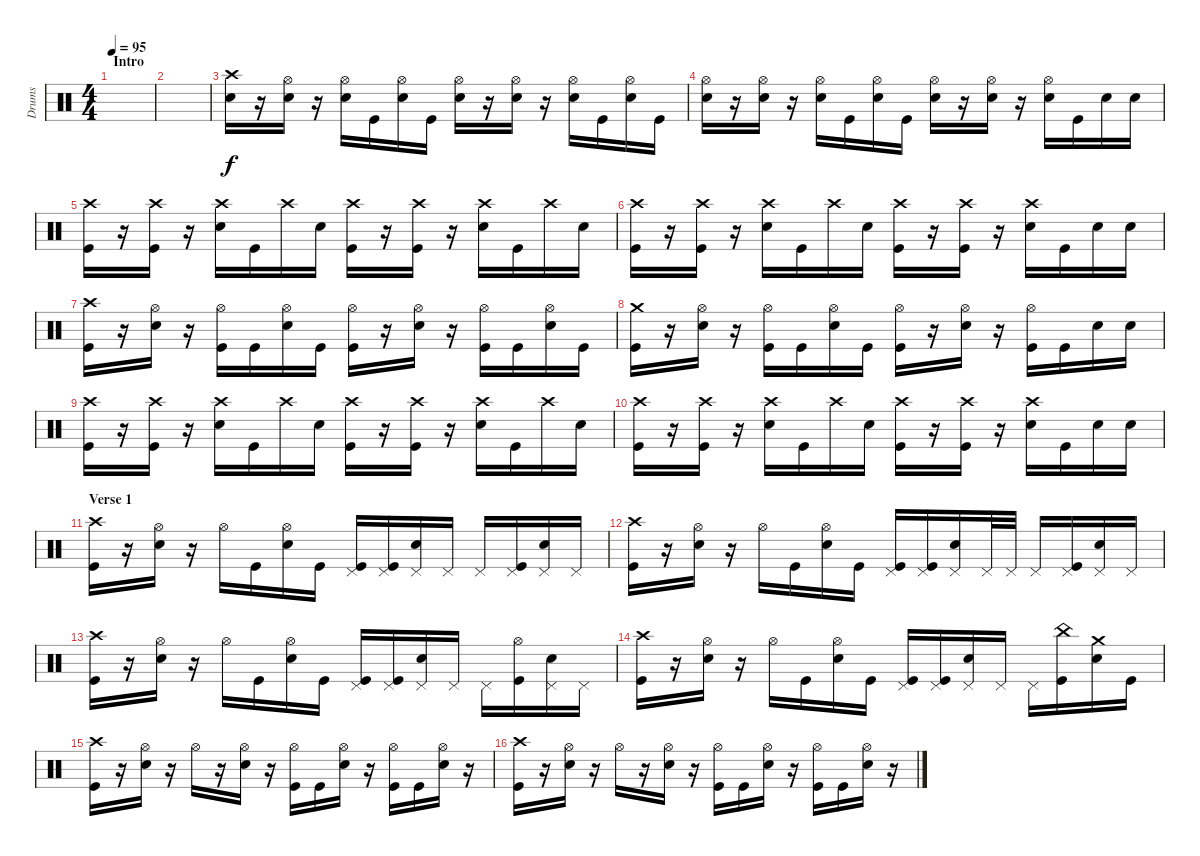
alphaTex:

\track ("Drums" "Drums") {instrument percussion}
\staff {score}
\articulation defaults
\ts (4 4)
\section ("" "Intro")
\tempo 95
\clef neutral
\ks c
|
|
("Crash high (hit)" "Electric Snare (hit)").16 r.16 ("Hi-Hat (open)" "Electric Snare (hit)").16 r.16 ("Hi-Hat (open)" "Electric Snare (hit)").16 "Kick (hit)".16 ("Hi-Hat (open)" "Electric Snare (hit)").16 "Kick (hit)".16 ("Hi-Hat (open)" "Electric Snare (hit)").16 r.16 ("Hi-Hat (open)" "Electric Snare (hit)").16 r.16 ("Hi-Hat (open)" "Electric Snare (hit)").16 "Kick (hit)".16 ("Hi-Hat (open)" "Electric Snare (hit)").16 "Kick (hit)".16 |
("Hi-Hat (open)" "Electric Snare (hit)").16 r.16 ("Hi-Hat (open)" "Electric Snare (hit)").16 r.16 ("Hi-Hat (open)" "Electric Snare (hit)").16 "Kick (hit)".16 ("Hi-Hat (open)" "Electric Snare (hit)").16 "Kick (hit)".16 ("Hi-Hat (open)" "Electric Snare (hit)").16 r.16 ("Hi-Hat (open)" "Electric Snare (hit)").16 r.16 ("Hi-Hat (open)" "Electric Snare (hit)").16 "Kick (hit)".16 "Electric Snare (hit)".16 "Electric Snare (hit)".16 |
("Crash high (hit)" "Kick (hit)").16 r.16 ("Crash high (hit)" "Kick (hit)").16 r.16 ("Crash high (hit)" "Electric Snare (hit)").16 "Kick (hit)".16 "Crash high (hit)".16 "Electric Snare (hit)".16 ("Crash high (hit)" "Kick (hit)").16 r.16 ("Crash high (hit)" "Kick (hit)").16 r.16 ("Crash high (hit)" "Electric Snare (hit)").16 "Kick (hit)".16 "Crash high (hit)".16 "Electric Snare (hit)".16 |
("Crash high (hit)" "Kick (hit)").16 r.16 ("Crash high (hit)" "Kick (hit)").16 r.16 ("Crash high (hit)" "Electric Snare (hit)").16 "Kick (hit)".16 "Crash high (hit)".16 "Electric Snare (hit)".16 ("Crash high (hit)" "Kick (hit)").16 r.16 ("Crash high (hit)" "Kick (hit)").16 r.16 ("Crash high (hit)" "Electric Snare (hit)").16 "Kick (hit)".16 "Electric Snare (hit)".16 "Electric Snare (hit)".16 |
("Crash high (hit)" "Kick (hit)").16 r.16 ("Hi-Hat (open)" "Electric Snare (hit)").16 r.16 ("Hi-Hat (open)" "Kick (hit)").16 "Kick (hit)".16 ("Hi-Hat (open)" "Electric Snare (hit)").16 "Kick (hit)".16 ("Hi-Hat (open)" "Kick (hit)").16 r.16 ("Hi-Hat (open)" "Electric Snare (hit)").16 r.16 ("Hi-Hat (open)" "Kick (hit)").16 "Kick (hit)".16 ("Hi-Hat (open)" "Electric Snare (hit)").16 "Kick (hit)".16 |
("Crash medium (hit)" "Kick (hit)").16 r.16 ("Hi-Hat (open)" "Electric Snare (hit)").16 r.16 ("Hi-Hat (open)" "Kick (hit)").16 "Kick (hit)".16 ("Hi-Hat (open)" "Electric Snare (hit)").16 "Kick (hit)".16 ("Hi-Hat (open)" "Kick (hit)").16 r.16 ("Hi-Hat (open)" "Electric Snare (hit)").16 r.16 ("Hi-Hat (open)" "Kick (hit)").16 "Kick (hit)".16 "Electric Snare (hit)".16 "Electric Snare (hit)".16 |
("Crash high (hit)" "Kick (hit)").16 r.16 ("Crash high (hit)" "Kick (hit)").16 r.16 ("Crash high (hit)" "Electric Snare (hit)").16 "Kick (hit)".16 "Crash high (hit)".16 "Electric Snare (hit)".16 ("Crash high (hit)" "Kick (hit)").16 r.16 ("Crash high (hit)" "Kick (hit)").16 r.16 ("Crash high (hit)" "Electric Snare (hit)").16 "Kick (hit)".16 "Crash high (hit)".16 "Electric Snare (hit)".16 |
("Crash high (hit)" "Kick (hit)").16 r.16 ("Crash high (hit)" "Kick (hit)").16 r.16 ("Crash high (hit)" "Electric Snare (hit)").16 "Kick (hit)".16 "Crash high (hit)".16 "Electric Snare (hit)".16 ("Crash high (hit)" "Kick (hit)").16 r.16 ("Crash high (hit)" "Kick (hit)").16 r.16 ("Crash high (hit)" "Electric Snare (hit)").16 "Kick (hit)".16 "Electric Snare (hit)".16 "Electric Snare (hit)".16 |
\section ("" "Verse 1")
("Crash high (hit)" "Kick (hit)").16 r.16 ("Hi-Hat (open)" "Electric Snare (hit)").16 r.16 "Hi-Hat (open)".16 "Kick (hit)".16 ("Hi-Hat (open)" "Electric Snare (hit)").16 "Kick (hit)".16 ("Pedal Hi-Hat (hit)" "Kick (hit)").16 ("Pedal Hi-Hat (hit)" "Kick (hit)").16 ("Pedal Hi-Hat (hit)" "Electric Snare (hit)").16 "Pedal Hi-Hat (hit)".16 "Pedal Hi-Hat (hit)".16 ("Pedal Hi-Hat (hit)" "Kick (hit)").16 ("Pedal Hi-Hat (hit)" "Electric Snare (hit)").16 "Pedal Hi-Hat (hit)".16 |
("Crash high (hit)" "Kick (hit)").16 r.16 ("Hi-Hat (open)" "Electric Snare (hit)").16 r.16 "Hi-Hat (open)".16 "Kick (hit)".16 ("Hi-Hat (open)" "Electric Snare (hit)").16 "Kick (hit)".16 ("Pedal Hi-Hat (hit)" "Kick (hit)").16 ("Pedal Hi-Hat (hit)" "Kick (hit)").16 ("Pedal Hi-Hat (hit)" "Electric Snare (hit)").16 "Pedal Hi-Hat (hit)".32 "Pedal Hi-Hat (hit)".32 "Pedal Hi-Hat (hit)".16 ("Pedal Hi-Hat (hit)" "Kick (hit)").16 ("Pedal Hi-Hat (hit)" "Electric Snare (hit)").16 "Pedal Hi-Hat (hit)".16 |
("Crash high (hit)" "Kick (hit)").16 r.16 ("Hi-Hat (open)" "Electric Snare (hit)").16 r.16 "Hi-Hat (open)".16 "Kick (hit)".16 ("Hi-Hat (open)" "Electric Snare (hit)").16 "Kick (hit)".16 ("Pedal Hi-Hat (hit)" "Kick (hit)").16 ("Pedal Hi-Hat (hit)" "Kick (hit)").16 ("Pedal Hi-Hat (hit)" "Electric Snare (hit)").16 "Pedal Hi-Hat (hit)".16 "Pedal Hi-Hat (hit)".16 ("Hi-Hat (open)" "Kick (hit)").16 ("Pedal Hi-Hat (hit)" "Electric Snare (hit)").16 "Pedal Hi-Hat (hit)".16 |
("Crash high (hit)" "Kick (hit)").16 r.16 ("Hi-Hat (open)" "Electric Snare (hit)").16 r.16 "Hi-Hat (open)".16 "Kick (hit)".16 ("Hi-Hat (open)" "Electric Snare (hit)").16 "Kick (hit)".16 ("Pedal Hi-Hat (hit)" "Kick (hit)").16 ("Pedal Hi-Hat (hit)" "Kick (hit)").16 ("Pedal Hi-Hat (hit)" "Electric Snare (hit)").16 "Pedal Hi-Hat (hit)".16 "Pedal Hi-Hat (hit)".16 ("China (hit)" "Kick (hit)").16{volume 7} ("Crash medium (hit)" "Electric Snare (hit)").16{volume 15} "Kick (hit)".16 |
("Crash high (hit)" "Kick (hit)").16 r.16 ("Hi-Hat (open)" "Electric Snare (hit)").16 r.16 "Hi-Hat (open)".16 r.16 ("Hi-Hat (open)" "Electric Snare (hit)").16 r.16 ("Hi-Hat (open)" "Kick (hit)").16 "Kick (hit)".16 ("Hi-Hat (open)" "Electric Snare (hit)").16 r.16 ("Hi-Hat (open)" "Kick (hit)").16 "Kick (hit)".16 ("Hi-Hat (open)" "Electric Snare (hit)").16 r.16 |
("Crash high (hit)" "Kick (hit)").16 r.16 ("Hi-Hat (open)" "Electric Snare (hit)").16 r.16 "Hi-Hat (open)".16 r.16 ("Hi-Hat (open)" "Electric Snare (hit)").16 r.16 ("Hi-Hat (open)" "Kick (hit)").16 "Kick (hit)".16 ("Hi-Hat (open)" "Electric Snare (hit)").16 r.16 ("Hi-Hat (open)" "Kick (hit)").16 "Kick (hit)".16 ("Hi-Hat (open)" "Electric Snare (hit)").16 r.16
